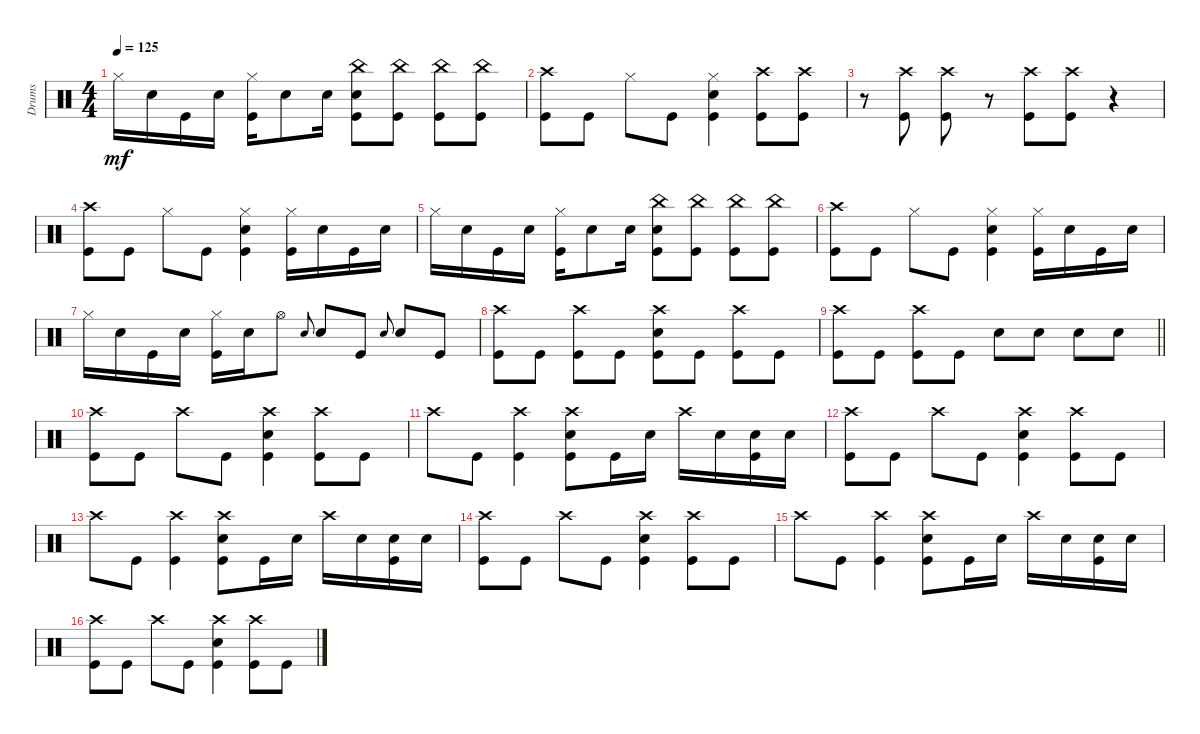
\track ("Drums" "Drums") {instrument percussion}
\staff {score}
\articulation defaults
\ts (4 4)
\tempo 125
\clef neutral
\ks c "Hi-Hat (closed)".16{dy mf} "Snare (hit) 2".16 "Kick (hit)".16 "Snare (hit) 2".16
("Hi-Hat (closed)" "Kick (hit)").16 "Snare (hit) 2".8 "Snare (hit) 2".16 ("Kick (hit)" "Snare (hit) 2" "China (hit)").8 ("Kick (hit)" "China (hit)").8 ("Kick (hit)" "China (hit)").8 ("Kick (hit)" "China (hit)").8 |
("Crash high (hit)" "Kick (hit)").8 "Kick (hit)".8 "Hi-Hat (closed)".8 "Kick (hit)".8 ("Snare (hit) 2" "Hi-Hat (closed)" "Kick (hit)").4 ("Crash high (hit)" "Kick (hit)").8 ("Kick (hit)" "Crash high (hit)").8 |
r.8 ("Crash high (hit)" "Kick (hit)").8 ("Kick (hit)" "Crash high (hit)").8 r.8 ("Kick (hit)" "Crash high (hit)").8 ("Crash high (hit)" "Kick (hit)").8 r.4 |
("Crash high (hit)" "Kick (hit)").8 "Kick (hit)".8 "Hi-Hat (closed)".8 "Kick (hit)".8 ("Snare (hit) 2" "Hi-Hat (closed)" "Kick (hit)").4 ("Hi-Hat (closed)" "Kick (hit)").16 "Snare (hit) 2".16 "Kick (hit)".16 "Snare (hit) 2".16 |
"Hi-Hat (closed)".16 "Snare (hit) 2".16 "Kick (hit)".16 "Snare (hit) 2".16 ("Hi-Hat (closed)" "Kick (hit)").16 "Snare (hit) 2".8 "Snare (hit) 2".16 ("Kick (hit)" "Snare (hit) 2" "China (hit)").8 ("Kick (hit)" "China (hit)").8 ("Kick (hit)" "China (hit)").8 ("Kick (hit)" "China (hit)").8 |
("Kick (hit)" "Crash high (hit)").8 "Kick (hit)".8 "Hi-Hat (closed)".8 "Kick (hit)".8 ("Kick (hit)" "Snare (hit) 2" "Hi-Hat (closed)").4 ("Kick (hit)" "Hi-Hat (closed)").16 "Snare (hit) 2".16 "Kick (hit)".16 "Snare (hit) 2".16 |
"Hi-Hat (closed)".16 "Snare (hit) 2".16 "Kick (hit)".16 "Snare (hit) 2".16 ("Kick (hit)" "Hi-Hat (closed)").16 "Snare (hit) 2".16 "Hi-Hat (open)".8 "Snare (hit) 2".8{gr onbeat} "Snare (hit) 2".8{volume 9} "Kick (hit)".8 "Snare (hit) 2".8{gr onbeat} "Snare (hit) 2".8 "Kick (hit)".8 |
("Kick (hit)" "Crash high (hit)").8 "Kick (hit)".8 ("Kick (hit)" "Crash high (hit)").8 "Kick (hit)".8 ("Kick (hit)" "Snare (hit) 2" "Crash high (hit)").8 "Kick (hit)".8 ("Kick (hit)" "Crash high (hit)").8 "Kick (hit)".8 |
\barLineRight lightlight
("Kick (hit)" "Crash high (hit)").8 "Kick (hit)".8 ("Kick (hit)" "Crash high (hit)").8 "Kick (hit)".8 "Snare (hit) 2".8 "Snare (hit) 2".8 "Snare (hit) 2".8 "Snare (hit) 2".8 |
("Crash high (hit)" "Kick (hit)").8 "Kick (hit)".8 "Crash high (hit)".8 "Kick (hit)".8 ("Snare (hit) 2" "Crash high (hit)" "Kick (hit)").4 ("Crash high (hit)" "Kick (hit)").8 "Kick (hit)".8 |
"Crash high (hit)".8 "Kick (hit)".8 ("Crash high (hit)" "Kick (hit)").4 ("Snare (hit) 2" "Crash high (hit)" "Kick (hit)").8 "Kick (hit)".16 "Snare (hit) 2".16 "Crash high (hit)".16 "Snare (hit) 2".16 ("Kick (hit)" "Snare (hit) 2").16 "Snare (hit) 2".16 |
("Kick (hit)" "Crash high (hit)").8 "Kick (hit)".8 "Crash high (hit)".8 "Kick (hit)".8 ("Kick (hit)" "Snare (hit) 2" "Crash high (hit)").4 ("Kick (hit)" "Crash high (hit)").8 "Kick (hit)".8 |
"Crash high (hit)".8 "Kick (hit)".8 ("Crash high (hit)" "Kick (hit)").4 ("Snare (hit) 2" "Crash high (hit)" "Kick (hit)").8 "Kick (hit)".16 "Snare (hit) 2".16 "Crash high (hit)".16 "Snare (hit) 2".16 ("Snare (hit) 2" "Kick (hit)").16 "Snare (hit) 2".16 |
("Kick (hit)" "Crash high (hit)").8 "Kick (hit)".8 "Crash high (hit)".8 "Kick (hit)".8 ("Kick (hit)" "Snare (hit) 2" "Crash high (hit)").4 ("Kick (hit)" "Crash high (hit)").8 "Kick (hit)".8 |
"Crash high (hit)".8 "Kick (hit)".8 ("Kick (hit)" "Crash high (hit)").4 ("Kick (hit)" "Snare (hit) 2" "Crash high (hit)").8 "Kick (hit)".16 "Snare (hit) 2".16 "Crash high (hit)".16 "Snare (hit) 2".16 ("Snare (hit) 2" "Kick (hit)").16 "Snare (hit) 2".16 |
("Kick (hit)" "Crash high (hit)").8 "Kick (hit)".8 "Crash high (hit)".8 "Kick (hit)".8 ("Kick (hit)" "Snare (hit) 2" "Crash high (hit)").4 ("Kick (hit)" "Crash high (hit)").8 "Kick (hit)".8
